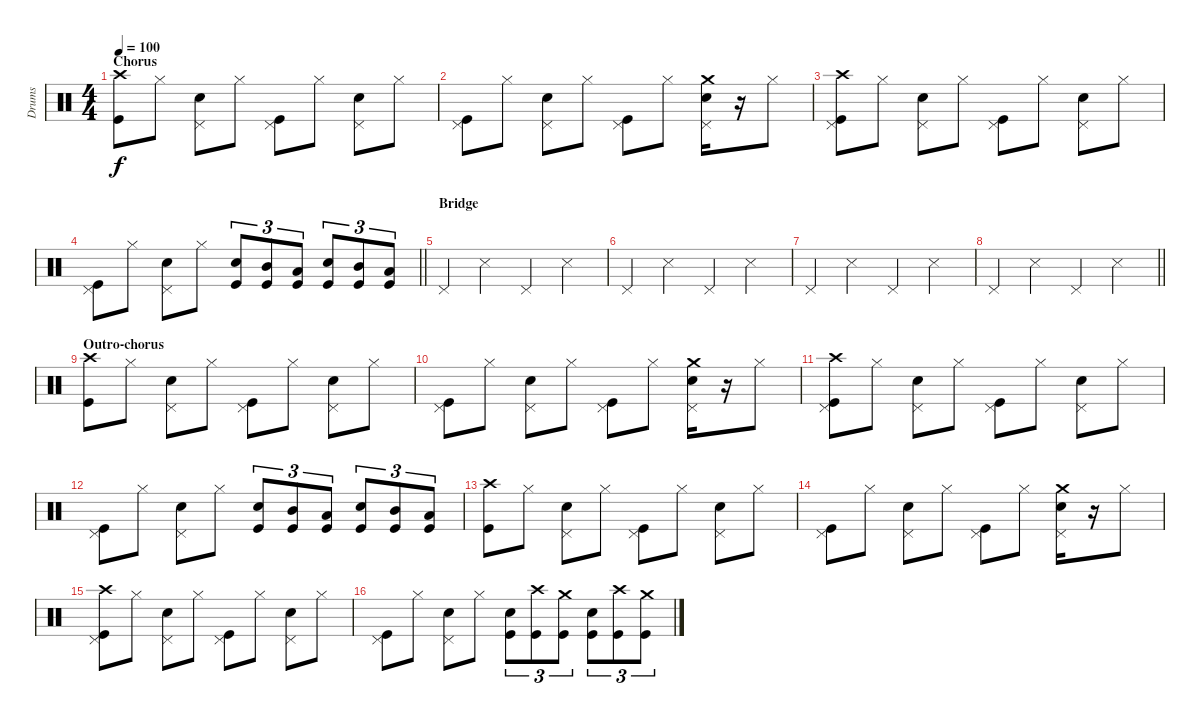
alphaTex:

\track ("Drums" "Drums") {instrument percussion}
\staff {score}
\articulation defaults
\ts (4 4)
\section ("" "Chorus")
\tempo 100
\clef neutral
\ks c
("Crash high (hit)" "Kick (hit)").8{dy f} "Hi-Hat (closed)".8 ("Pedal Hi-Hat (hit)" "Electric Snare (hit)").8 "Hi-Hat (closed)".8 ("Pedal Hi-Hat (hit)" "Kick (hit)").8 "Hi-Hat (closed)".8 ("Pedal Hi-Hat (hit)" "Electric Snare (hit)").8 "Hi-Hat (closed)".8 |
("Pedal Hi-Hat (hit)" "Kick (hit)").8 "Hi-Hat (closed)".8 ("Pedal Hi-Hat (hit)" "Electric Snare (hit)").8 "Hi-Hat (closed)".8 ("Pedal Hi-Hat (hit)" "Kick (hit)").8 "Hi-Hat (closed)".8 ("Crash medium (hit)" "Pedal Hi-Hat (hit)" "Electric Snare (hit)").16 r.16 "Hi-Hat (closed)".8 |
("Crash high (hit)" "Pedal Hi-Hat (hit)" "Kick (hit)").8 "Hi-Hat (closed)".8 ("Pedal Hi-Hat (hit)" "Electric Snare (hit)").8 "Hi-Hat (closed)".8 ("Pedal Hi-Hat (hit)" "Kick (hit)").8 "Hi-Hat (closed)".8 ("Pedal Hi-Hat (hit)" "Electric Snare (hit)").8 "Hi-Hat (closed)".8 |
\barLineRight lightlight
("Pedal Hi-Hat (hit)" "Kick (hit)").8 "Hi-Hat (closed)".8 ("Pedal Hi-Hat (hit)" "Electric Snare (hit)").8 "Hi-Hat (closed)".8 ("Electric Snare (hit)" "Kick (hit)").8{tu (3 2)} ("Mid Tom (hit)" "Kick (hit)").8{tu (3 2)} ("Low Tom (hit)" "Kick (hit)").8{tu (3 2)} ("Electric Snare (hit)" "Kick (hit)").8{tu (3 2)} ("Mid Tom (hit)" "Kick (hit)").8{tu (3 2)} ("Low Tom (hit)" "Kick (hit)").8{tu (3 2)} |
\section ("" "Bridge")
"Pedal Hi-Hat (hit)".4 "Snare (side stick) 3".4 "Pedal Hi-Hat (hit)".4 "Snare (side stick) 3".4 |
"Pedal Hi-Hat (hit)".4 "Snare (side stick) 3".4 "Pedal Hi-Hat (hit)".4 "Snare (side stick) 3".4 |
"Pedal Hi-Hat (hit)".4 "Snare (side stick) 3".4 "Pedal Hi-Hat (hit)".4 "Snare (side stick) 3".4 |
\barLineRight lightlight "Pedal Hi-Hat (hit)".4 "Snare (side stick) 3".4 "Pedal Hi-Hat (hit)".4 "Snare (side stick) 3".4
|
\section ("" "Outro-chorus")
("Crash high (hit)" "Kick (hit)").8 "Hi-Hat (closed)".8 ("Pedal Hi-Hat (hit)" "Electric Snare (hit)").8 "Hi-Hat (closed)".8 ("Pedal Hi-Hat (hit)" "Kick (hit)").8 "Hi-Hat (closed)".8 ("Pedal Hi-Hat (hit)" "Electric Snare (hit)").8 "Hi-Hat (closed)".8 |
("Pedal Hi-Hat (hit)" "Kick (hit)").8 "Hi-Hat (closed)".8 ("Pedal Hi-Hat (hit)" "Electric Snare (hit)").8 "Hi-Hat (closed)".8 ("Pedal Hi-Hat (hit)" "Kick (hit)").8 "Hi-Hat (closed)".8 ("Crash medium (hit)" "Pedal Hi-Hat (hit)" "Electric Snare (hit)").16 r.16 "Hi-Hat (closed)".8 |
("Crash high (hit)" "Pedal Hi-Hat (hit)" "Kick (hit)").8 "Hi-Hat (closed)".8 ("Pedal Hi-Hat (hit)" "Electric Snare (hit)").8 "Hi-Hat (closed)".8 ("Pedal Hi-Hat (hit)" "Kick (hit)").8 "Hi-Hat (closed)".8 ("Pedal Hi-Hat (hit)" "Electric Snare (hit)").8 "Hi-Hat (closed)".8 |
("Pedal Hi-Hat (hit)" "Kick (hit)").8 "Hi-Hat (closed)".8 ("Pedal Hi-Hat (hit)" "Electric Snare (hit)").8 "Hi-Hat (closed)".8 ("Electric Snare (hit)" "Kick (hit)").8{tu (3 2)} ("Mid Tom (hit)" "Kick (hit)").8{tu (3 2)} ("Low Tom (hit)" "Kick (hit)").8{tu (3 2)} ("Electric Snare (hit)" "Kick (hit)").8{tu (3 2)} ("Mid Tom (hit)" "Kick (hit)").8{tu (3 2)} ("Low Tom (hit)" "Kick (hit)").8{tu (3 2)} |
("Crash high (hit)" "Kick (hit)").8 "Hi-Hat (closed)".8 ("Pedal Hi-Hat (hit)" "Electric Snare (hit)").8 "Hi-Hat (closed)".8 ("Pedal Hi-Hat (hit)" "Kick (hit)").8 "Hi-Hat (closed)".8 ("Pedal Hi-Hat (hit)" "Electric Snare (hit)").8 "Hi-Hat (closed)".8 |
("Pedal Hi-Hat (hit)" "Kick (hit)").8 "Hi-Hat (closed)".8 ("Pedal Hi-Hat (hit)" "Electric Snare (hit)").8 "Hi-Hat (closed)".8 ("Pedal Hi-Hat (hit)" "Kick (hit)").8 "Hi-Hat (closed)".8 ("Crash medium (hit)" "Pedal Hi-Hat (hit)" "Electric Snare (hit)").16 r.16 "Hi-Hat (closed)".8 |
("Crash high (hit)" "Pedal Hi-Hat (hit)" "Kick (hit)").8 "Hi-Hat (closed)".8 ("Pedal Hi-Hat (hit)" "Electric Snare (hit)").8 "Hi-Hat (closed)".8 ("Pedal Hi-Hat (hit)" "Kick (hit)").8 "Hi-Hat (closed)".8 ("Pedal Hi-Hat (hit)" "Electric Snare (hit)").8 "Hi-Hat (closed)".8 |
("Pedal Hi-Hat (hit)" "Kick (hit)").8 "Hi-Hat (closed)".8 ("Pedal Hi-Hat (hit)" "Electric Snare (hit)").8 "Hi-Hat (closed)".8 ("Electric Snare (hit)" "Kick (hit)").8{tu (3 2)} ("Crash high (hit)" "Kick (hit)").8{tu (3 2)} ("Crash medium (hit)" "Kick (hit)").8{tu (3 2)} ("Electric Snare (hit)" "Kick (hit)").8{tu (3 2)} ("Crash high (hit)" "Kick (hit)").8{tu (3 2)} ("Crash medium (hit)" "Kick (hit)").8{tu (3 2)}
